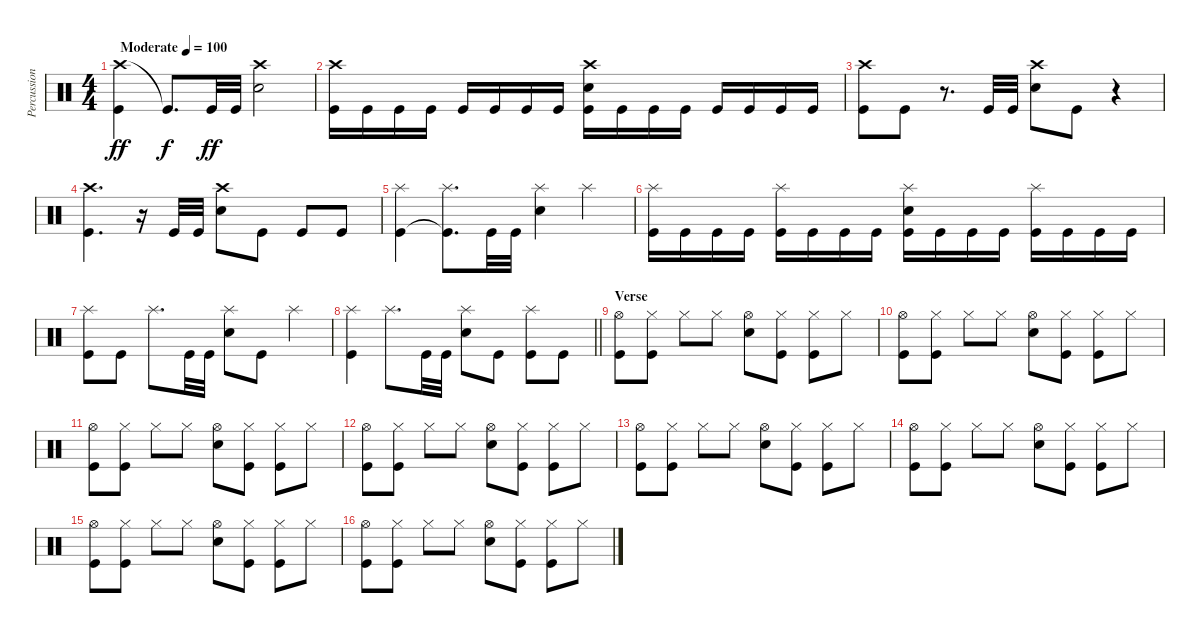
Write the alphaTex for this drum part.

\track ("Percussion" "Percussion") {instrument percussion}
\staff {score}
\articulation defaults
\ts (4 4)
\tempo (100 "Moderate")
\clef neutral
\ks c
("Crash high (hit)" "Kick (hit)").4{dy ff} "Kick (hit)"{t}.8{d dy f} "Kick (hit)".32{dy ff} "Kick (hit)".32 ("Crash high (hit)" "Electric Snare (hit)").2 |
("Crash high (hit)" "Kick (hit)").16 "Kick (hit)".16 "Kick (hit)".16 "Kick (hit)".16 "Kick (hit)".16 "Kick (hit)".16 "Kick (hit)".16 "Kick (hit)".16 ("Crash high (hit)" "Electric Snare (hit)" "Kick (hit)").16 "Kick (hit)".16 "Kick (hit)".16 "Kick (hit)".16 "Kick (hit)".16 "Kick (hit)".16 "Kick (hit)".16 "Kick (hit)".16 |
("Crash high (hit)" "Kick (hit)").8 "Kick (hit)".8 r.8{d} "Kick (hit)".32 "Kick (hit)".32 ("Crash high (hit)" "Electric Snare (hit)").8 "Kick (hit)".8 r.4 |
("Crash high (hit)" "Kick (hit)").4{d} r.16 "Kick (hit)".32 "Kick (hit)".32 ("Crash high (hit)" "Electric Snare (hit)").8 "Kick (hit)".8 "Kick (hit)".8 "Kick (hit)".8 |
("Splash (hit)" "Kick (hit)").4 ("Splash (hit)" "Kick (hit)"{t}).8{d} "Kick (hit)".32 "Kick (hit)".32 ("Splash (hit)" "Electric Snare (hit)").4 "Splash (hit)".4 |
("Splash (hit)" "Kick (hit)").16 "Kick (hit)".16 "Kick (hit)".16 "Kick (hit)".16 ("Splash (hit)" "Kick (hit)").16 "Kick (hit)".16 "Kick (hit)".16 "Kick (hit)".16 ("Splash (hit)" "Electric Snare (hit)" "Kick (hit)").16 "Kick (hit)".16 "Kick (hit)".16 "Kick (hit)".16 ("Splash (hit)" "Kick (hit)").16 "Kick (hit)".16 "Kick (hit)".16 "Kick (hit)".16 |
("Splash (hit)" "Kick (hit)").8 "Kick (hit)".8 "Splash (hit)".8{d} "Kick (hit)".32 "Kick (hit)".32 ("Splash (hit)" "Electric Snare (hit)").8 "Kick (hit)".8 "Splash (hit)".4 |
\barLineRight lightlight
("Splash (hit)" "Kick (hit)").4 "Splash (hit)".8{d} "Kick (hit)".32 "Kick (hit)".32 ("Splash (hit)" "Electric Snare (hit)").8 "Kick (hit)".8 ("Splash (hit)" "Kick (hit)").8 "Kick (hit)".8 |
\section ("" "Verse")
("Hi-Hat (open)" "Kick (hit)").8 ("Hi-Hat (closed)" "Kick (hit)").8 "Hi-Hat (closed)".8 "Hi-Hat (closed)".8 ("Hi-Hat (open)" "Electric Snare (hit)").8 ("Hi-Hat (closed)" "Kick (hit)").8 ("Hi-Hat (closed)" "Kick (hit)").8 "Hi-Hat (closed)".8 |
("Hi-Hat (open)" "Kick (hit)").8 ("Hi-Hat (closed)" "Kick (hit)").8 "Hi-Hat (closed)".8 "Hi-Hat (closed)".8 ("Hi-Hat (open)" "Electric Snare (hit)").8 ("Hi-Hat (closed)" "Kick (hit)").8 ("Hi-Hat (closed)" "Kick (hit)").8 "Hi-Hat (closed)".8 |
("Hi-Hat (open)" "Kick (hit)").8 ("Hi-Hat (closed)" "Kick (hit)").8 "Hi-Hat (closed)".8 "Hi-Hat (closed)".8 ("Hi-Hat (open)" "Electric Snare (hit)").8 ("Hi-Hat (closed)" "Kick (hit)").8 ("Hi-Hat (closed)" "Kick (hit)").8 "Hi-Hat (closed)".8 |
("Hi-Hat (open)" "Kick (hit)").8 ("Hi-Hat (closed)" "Kick (hit)").8 "Hi-Hat (closed)".8 "Hi-Hat (closed)".8 ("Hi-Hat (open)" "Electric Snare (hit)").8 ("Hi-Hat (closed)" "Kick (hit)").8 ("Hi-Hat (closed)" "Kick (hit)").8 "Hi-Hat (closed)".8 |
("Hi-Hat (open)" "Kick (hit)").8 ("Hi-Hat (closed)" "Kick (hit)").8 "Hi-Hat (closed)".8 "Hi-Hat (closed)".8 ("Hi-Hat (open)" "Electric Snare (hit)").8 ("Hi-Hat (closed)" "Kick (hit)").8 ("Hi-Hat (closed)" "Kick (hit)").8 "Hi-Hat (closed)".8 |
("Hi-Hat (open)" "Kick (hit)").8 ("Hi-Hat (closed)" "Kick (hit)").8 "Hi-Hat (closed)".8 "Hi-Hat (closed)".8 ("Hi-Hat (open)" "Electric Snare (hit)").8 ("Hi-Hat (closed)" "Kick (hit)").8 ("Hi-Hat (closed)" "Kick (hit)").8 "Hi-Hat (closed)".8 |
("Hi-Hat (open)" "Kick (hit)").8 ("Hi-Hat (closed)" "Kick (hit)").8 "Hi-Hat (closed)".8 "Hi-Hat (closed)".8 ("Hi-Hat (open)" "Electric Snare (hit)").8 ("Hi-Hat (closed)" "Kick (hit)").8 ("Hi-Hat (closed)" "Kick (hit)").8 "Hi-Hat (closed)".8 |
("Hi-Hat (open)" "Kick (hit)").8 ("Hi-Hat (closed)" "Kick (hit)").8 "Hi-Hat (closed)".8 "Hi-Hat (closed)".8 ("Hi-Hat (open)" "Electric Snare (hit)").8 ("Hi-Hat (closed)" "Kick (hit)").8 ("Hi-Hat (closed)" "Kick (hit)").8 "Hi-Hat (closed)".8
